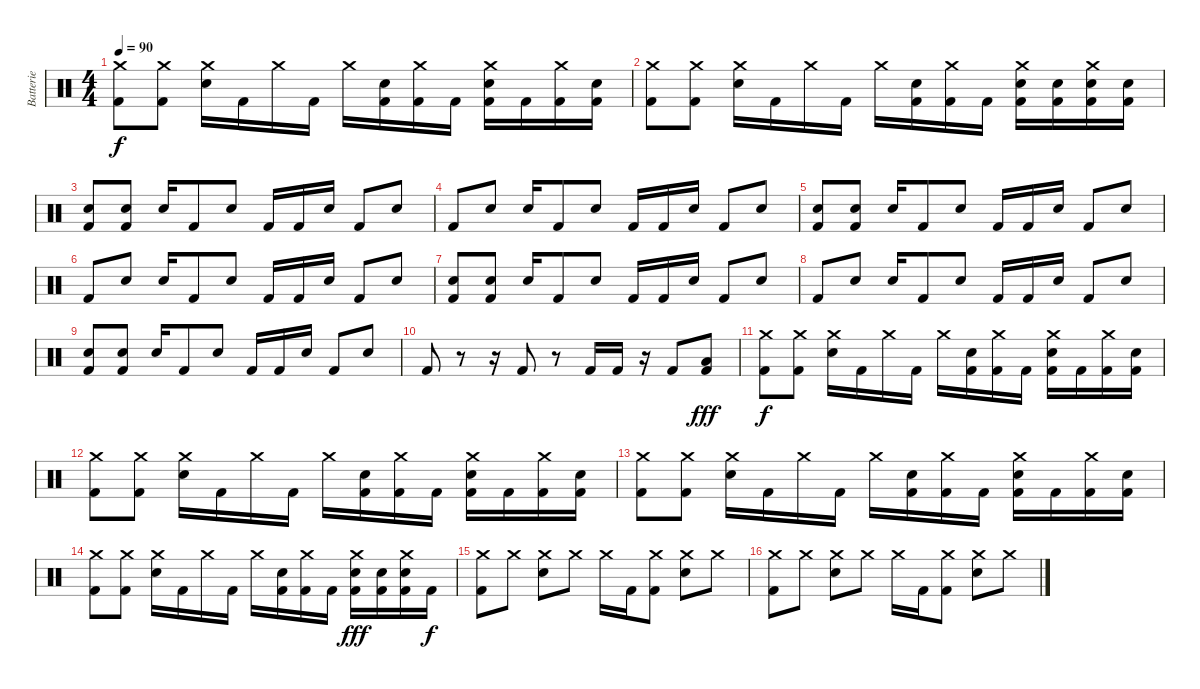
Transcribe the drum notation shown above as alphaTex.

\track ("Batterie" "Batterie") {instrument percussion}
\staff {score}
\articulation defaults
\ts (4 4)
\tempo 90
\clef neutral
\ks c
("Crash medium (hit)" "Kick (hit) 2").8{dy f} ("Crash medium (hit)" "Kick (hit) 2").8 ("Crash medium (hit)" "Snare (hit) 2").16 "Kick (hit) 2".16 "Crash medium (hit)".16 "Kick (hit) 2".16 "Crash medium (hit)".16 ("Snare (hit) 2" "Kick (hit) 2").16 ("Crash medium (hit)" "Kick (hit) 2").16 "Kick (hit) 2".16 ("Crash medium (hit)" "Snare (hit) 2" "Kick (hit) 2").16 "Kick (hit) 2".16 ("Crash medium (hit)" "Kick (hit) 2").16 ("Snare (hit) 2" "Kick (hit) 2").16 |
("Crash medium (hit)" "Kick (hit) 2").8 ("Crash medium (hit)" "Kick (hit) 2").8 ("Crash medium (hit)" "Snare (hit) 2").16 "Kick (hit) 2".16 "Crash medium (hit)".16 "Kick (hit) 2".16 "Crash medium (hit)".16 ("Snare (hit) 2" "Kick (hit) 2").16 ("Crash medium (hit)" "Kick (hit) 2").16 "Kick (hit) 2".16 ("Crash medium (hit)" "Snare (hit) 2" "Kick (hit) 2").16 ("Snare (hit) 2" "Kick (hit) 2").16 ("Crash medium (hit)" "Snare (hit) 2" "Kick (hit) 2").16 ("Snare (hit) 2" "Kick (hit) 2").16 |
("Snare (hit) 2" "Kick (hit) 2").8 ("Snare (hit) 2" "Kick (hit) 2").8 "Snare (hit) 2".16 "Kick (hit) 2".8 "Snare (hit) 2".8 "Kick (hit) 2".16 "Kick (hit) 2".16 "Snare (hit) 2".16 "Kick (hit) 2".8 "Snare (hit) 2".8 |
"Kick (hit) 2".8 "Snare (hit) 2".8 "Snare (hit) 2".16 "Kick (hit) 2".8 "Snare (hit) 2".8 "Kick (hit) 2".16 "Kick (hit) 2".16 "Snare (hit) 2".16 "Kick (hit) 2".8 "Snare (hit) 2".8 |
("Snare (hit) 2" "Kick (hit) 2").8 ("Snare (hit) 2" "Kick (hit) 2").8 "Snare (hit) 2".16 "Kick (hit) 2".8 "Snare (hit) 2".8 "Kick (hit) 2".16 "Kick (hit) 2".16 "Snare (hit) 2".16 "Kick (hit) 2".8 "Snare (hit) 2".8 |
"Kick (hit) 2".8 "Snare (hit) 2".8 "Snare (hit) 2".16 "Kick (hit) 2".8 "Snare (hit) 2".8 "Kick (hit) 2".16 "Kick (hit) 2".16 "Snare (hit) 2".16 "Kick (hit) 2".8 "Snare (hit) 2".8 |
("Snare (hit) 2" "Kick (hit) 2").8 ("Snare (hit) 2" "Kick (hit) 2").8 "Snare (hit) 2".16 "Kick (hit) 2".8 "Snare (hit) 2".8 "Kick (hit) 2".16 "Kick (hit) 2".16 "Snare (hit) 2".16 "Kick (hit) 2".8 "Snare (hit) 2".8 |
"Kick (hit) 2".8 "Snare (hit) 2".8 "Snare (hit) 2".16 "Kick (hit) 2".8 "Snare (hit) 2".8 "Kick (hit) 2".16 "Kick (hit) 2".16 "Snare (hit) 2".16 "Kick (hit) 2".8 "Snare (hit) 2".8 |
("Snare (hit) 2" "Kick (hit) 2").8 ("Snare (hit) 2" "Kick (hit) 2").8 "Snare (hit) 2".16 "Kick (hit) 2".8 "Snare (hit) 2".8 "Kick (hit) 2".16 "Kick (hit) 2".16 "Snare (hit) 2".16 "Kick (hit) 2".8 "Snare (hit) 2".8 |
"Kick (hit) 2".8 r.8 r.16 "Kick (hit) 2".8 r.8 "Kick (hit) 2".16 "Kick (hit) 2".16 r.16 "Kick (hit) 2".8 ("Low Tom (hit)" "Kick (hit) 2").8{dy fff} |
("Crash medium (hit)" "Kick (hit) 2").8{dy f} ("Crash medium (hit)" "Kick (hit) 2").8 ("Crash medium (hit)" "Snare (hit) 2").16 "Kick (hit) 2".16 "Crash medium (hit)".16 "Kick (hit) 2".16 "Crash medium (hit)".16 ("Snare (hit) 2" "Kick (hit) 2").16 ("Crash medium (hit)" "Kick (hit) 2").16 "Kick (hit) 2".16 ("Crash medium (hit)" "Snare (hit) 2" "Kick (hit) 2").16 "Kick (hit) 2".16 ("Crash medium (hit)" "Kick (hit) 2").16 ("Snare (hit) 2" "Kick (hit) 2").16 |
("Crash medium (hit)" "Kick (hit) 2").8 ("Crash medium (hit)" "Kick (hit) 2").8 ("Crash medium (hit)" "Snare (hit) 2").16 "Kick (hit) 2".16 "Crash medium (hit)".16 "Kick (hit) 2".16 "Crash medium (hit)".16 ("Snare (hit) 2" "Kick (hit) 2").16 ("Crash medium (hit)" "Kick (hit) 2").16 "Kick (hit) 2".16 ("Crash medium (hit)" "Snare (hit) 2" "Kick (hit) 2").16 "Kick (hit) 2".16 ("Crash medium (hit)" "Kick (hit) 2").16 ("Snare (hit) 2" "Kick (hit) 2").16 |
("Crash medium (hit)" "Kick (hit) 2").8 ("Crash medium (hit)" "Kick (hit) 2").8 ("Crash medium (hit)" "Snare (hit) 2").16 "Kick (hit) 2".16 "Crash medium (hit)".16 "Kick (hit) 2".16 "Crash medium (hit)".16 ("Snare (hit) 2" "Kick (hit) 2").16 ("Crash medium (hit)" "Kick (hit) 2").16 "Kick (hit) 2".16 ("Crash medium (hit)" "Snare (hit) 2" "Kick (hit) 2").16 "Kick (hit) 2".16 ("Crash medium (hit)" "Kick (hit) 2").16 ("Snare (hit) 2" "Kick (hit) 2").16 |
("Crash medium (hit)" "Kick (hit) 2").8 ("Crash medium (hit)" "Kick (hit) 2").8 ("Crash medium (hit)" "Snare (hit) 2").16 "Kick (hit) 2".16 "Crash medium (hit)".16 "Kick (hit) 2".16 "Crash medium (hit)".16 ("Snare (hit) 2" "Kick (hit) 2").16 ("Crash medium (hit)" "Kick (hit) 2").16 "Kick (hit) 2".16 ("Crash medium (hit)" "Snare (hit) 2" "Kick (hit) 2").16{dy fff} ("Snare (hit) 2" "Kick (hit) 2").16 ("Crash medium (hit)" "Snare (hit) 2" "Kick (hit) 2").16 "Kick (hit) 2".16{dy f} |
("Crash medium (hit)" "Kick (hit) 2").8 "Crash medium (hit)".8 ("Crash medium (hit)" "Snare (hit) 2").8 "Crash medium (hit)".8 "Crash medium (hit)".16 "Kick (hit) 2".16 ("Crash medium (hit)" "Kick (hit) 2").8 ("Crash medium (hit)" "Snare (hit) 2").8 "Crash medium (hit)".8 |
("Crash medium (hit)" "Kick (hit) 2").8 "Crash medium (hit)".8 ("Crash medium (hit)" "Snare (hit) 2").8 "Crash medium (hit)".8 "Crash medium (hit)".16 "Kick (hit) 2".16 ("Crash medium (hit)" "Kick (hit) 2").8 ("Crash medium (hit)" "Snare (hit) 2").8 "Crash medium (hit)".8
